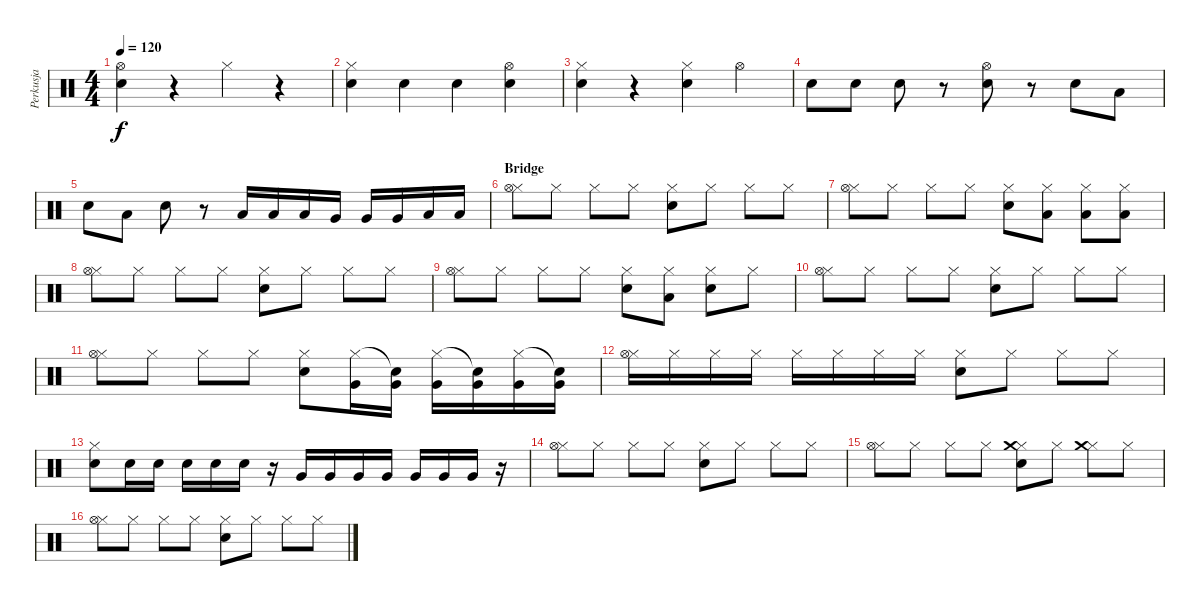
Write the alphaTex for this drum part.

\track ("Perkusja" "Perkusja") {instrument percussion}
\staff {score}
\articulation defaults
\ts (4 4)
\tempo 120
\clef neutral
\ks c
("Snare (hit) 2" "Hi-Hat (open)").4{dy f} r.4 "Hi-Hat (closed)".4 r.4 |
("Snare (hit) 2" "Hi-Hat (closed)").4 "Snare (hit) 2".4 "Snare (hit) 2".4 ("Snare (hit) 2" "Hi-Hat (open)").4 |
("Snare (hit) 2" "Hi-Hat (closed)").4 r.4 ("Snare (hit) 2" "Hi-Hat (closed)").4 "Hi-Hat (open)".4 |
"Snare (hit) 2".8 "Snare (hit) 2".8 "Snare (hit) 2".8 r.8 ("Snare (hit) 2" "Hi-Hat (open)").8 r.8 "Snare (hit) 2".8 "Low Floor Tom (hit)".8 |
"Snare (hit) 2".8 "Low Floor Tom (hit)".8 "Snare (hit) 2".8 r.8 "Low Floor Tom (hit)".16 "Low Floor Tom (hit)".16 "Low Floor Tom (hit)".16 "Very Low Tom (hit)".16 "Very Low Tom (hit)".16 "Very Low Tom (hit)".16 "Low Tom (hit)".16 "Low Tom (hit)".16 |
\section ("" "Bridge")
("Hi-Hat (closed)" "Hi-Hat (open)").8 "Hi-Hat (closed)".8 "Hi-Hat (closed)".8 "Hi-Hat (closed)".8 ("Hi-Hat (closed)" "Snare (hit) 2").8 "Hi-Hat (closed)".8 "Hi-Hat (closed)".8 "Hi-Hat (closed)".8 |
("Hi-Hat (closed)" "Hi-Hat (open)").8 "Hi-Hat (closed)".8 "Hi-Hat (closed)".8 "Hi-Hat (closed)".8 ("Hi-Hat (closed)" "Snare (hit) 2").8 ("Hi-Hat (closed)" "Low Floor Tom (hit)").8 ("Hi-Hat (closed)" "Low Floor Tom (hit)").8 ("Hi-Hat (closed)" "Low Floor Tom (hit)").8 |
("Hi-Hat (closed)" "Hi-Hat (open)").8 "Hi-Hat (closed)".8 "Hi-Hat (closed)".8 "Hi-Hat (closed)".8 ("Hi-Hat (closed)" "Snare (hit) 2").8 "Hi-Hat (closed)".8 "Hi-Hat (closed)".8 "Hi-Hat (closed)".8 |
("Hi-Hat (closed)" "Hi-Hat (open)").8 "Hi-Hat (closed)".8 "Hi-Hat (closed)".8 "Hi-Hat (closed)".8 ("Hi-Hat (closed)" "Snare (hit) 2").8 ("Hi-Hat (closed)" "Low Floor Tom (hit)").8 ("Hi-Hat (closed)" "Snare (hit) 2").8 "Hi-Hat (closed)".8 |
("Hi-Hat (closed)" "Hi-Hat (open)").8 "Hi-Hat (closed)".8 "Hi-Hat (closed)".8 "Hi-Hat (closed)".8 ("Hi-Hat (closed)" "Snare (hit) 2").8 "Hi-Hat (closed)".8 "Hi-Hat (closed)".8 "Hi-Hat (closed)".8 |
("Hi-Hat (closed)" "Hi-Hat (open)").8 "Hi-Hat (closed)".8 "Hi-Hat (closed)".8 "Hi-Hat (closed)".8 ("Hi-Hat (closed)" "Snare (hit) 2").8 ("Hi-Hat (closed)" "Very Low Tom (hit)").16 ("Snare (hit)"{t} "Very Low Tom (hit)").16 ("Hi-Hat (closed)" "Very Low Tom (hit)").16 ("Snare (hit)"{t} "Very Low Tom (hit)").16 ("Hi-Hat (closed)" "Very Low Tom (hit)").16 ("Snare (hit)"{t} "Very Low Tom (hit)").16 |
("Hi-Hat (closed)" "Hi-Hat (open)").16 "Hi-Hat (closed)".16 "Hi-Hat (closed)".16 "Hi-Hat (closed)".16 "Hi-Hat (closed)".16 "Hi-Hat (closed)".16 "Hi-Hat (closed)".16 "Hi-Hat (closed)".16 ("Hi-Hat (closed)" "Snare (hit) 2").8 "Hi-Hat (closed)".8 "Hi-Hat (closed)".8 "Hi-Hat (closed)".8 |
("Hi-Hat (closed)" "Snare (hit) 2").8 "Snare (hit) 2".16 "Snare (hit) 2".16 "Snare (hit) 2".16 "Snare (hit) 2".16 "Snare (hit) 2".16 r.16 "Very Low Tom (hit)".16 "Very Low Tom (hit)".16 "Very Low Tom (hit)".16 "Very Low Tom (hit)".16 "Very Low Tom (hit)".16 "Very Low Tom (hit)".16 "Very Low Tom (hit)".16 r.16 |
("Hi-Hat (closed)" "Hi-Hat (open)").8 "Hi-Hat (closed)".8 "Hi-Hat (closed)".8 "Hi-Hat (closed)".8 ("Hi-Hat (closed)" "Snare (hit) 2").8 "Hi-Hat (closed)".8 "Hi-Hat (closed)".8 "Hi-Hat (closed)".8 |
("Hi-Hat (closed)" "Hi-Hat (open)").8 "Hi-Hat (closed)".8 "Hi-Hat (closed)".8 "Hi-Hat (closed)".8 ("Hi-Hat (closed)" "Snare (hit) 2" "Crash medium (hit)").8 "Hi-Hat (closed)".8 ("Hi-Hat (closed)" "Crash medium (hit)").8 "Hi-Hat (closed)".8 |
("Hi-Hat (closed)" "Hi-Hat (open)").8 "Hi-Hat (closed)".8 "Hi-Hat (closed)".8 "Hi-Hat (closed)".8 ("Hi-Hat (closed)" "Snare (hit) 2").8 "Hi-Hat (closed)".8 "Hi-Hat (closed)".8 "Hi-Hat (closed)".8
